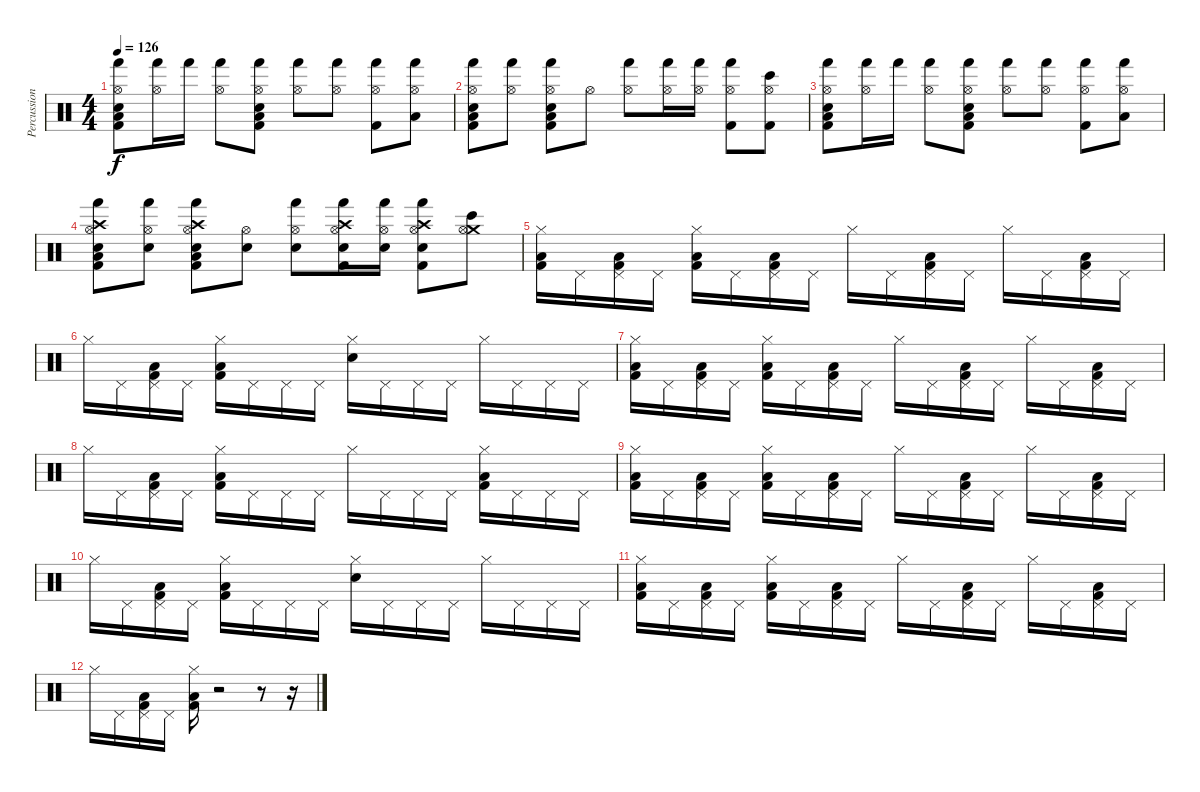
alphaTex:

\track ("Percussion" "Percussion") {instrument percussion}
\staff {score}
\articulation defaults
\ts (4 4)
\tempo 126
\clef neutral
\ks c
("Hand (hit)" "Low Tom (hit)" "Kick (hit) 2" "Snare (hit) 2" "Hi-Hat (open)").8{dy f} ("Hand (hit)" "Hi-Hat (open)").16 "Hand (hit)".16 ("Hand (hit)" "Hi-Hat (open)").8 ("Hand (hit)" "Low Tom (hit)" "Kick (hit) 2" "Snare (hit) 2" "Hi-Hat (open)").8 ("Hand (hit)" "Hi-Hat (open)").8 ("Hand (hit)" "Hi-Hat (open)").8 ("Hand (hit)" "Kick (hit) 2" "Hi-Hat (open)").8 ("Hand (hit)" "Low Tom (hit)" "Hi-Hat (open)").8 |
("Hand (hit)" "Low Tom (hit)" "Kick (hit) 2" "Snare (hit) 2" "Hi-Hat (open)").8 ("Hand (hit)" "Hi-Hat (open)").8 ("Hand (hit)" "Low Tom (hit)" "Kick (hit) 2" "Snare (hit) 2" "Hi-Hat (open)").8 "Hi-Hat (open)".8 ("Hand (hit)" "Hi-Hat (open)").8 ("Hand (hit)" "Hi-Hat (open)").16 ("Hand (hit)" "Hi-Hat (open)").16 ("Hand (hit)" "Kick (hit) 2" "Hi-Hat (open)").8 ("Bongo High (hit)" "Kick (hit) 2" "Hi-Hat (open)").8 |
("Hand (hit)" "Low Tom (hit)" "Kick (hit) 2" "Snare (hit) 2" "Hi-Hat (open)").8 ("Hand (hit)" "Hi-Hat (open)").16 "Hand (hit)".16 ("Hand (hit)" "Hi-Hat (open)").8 ("Hand (hit)" "Low Tom (hit)" "Kick (hit) 2" "Snare (hit) 2" "Hi-Hat (open)").8 ("Hand (hit)" "Hi-Hat (open)").8 ("Hand (hit)" "Hi-Hat (open)").8 ("Hand (hit)" "Kick (hit) 2" "Hi-Hat (open)").8 ("Hand (hit)" "Low Tom (hit)" "Hi-Hat (open)").8 |
("Hand (hit)" "Crash high (hit)" "Low Tom (hit)" "Kick (hit) 2" "Snare (hit) 2" "Hi-Hat (open)").8 ("Hand (hit)" "Snare (hit) 2" "Hi-Hat (open)").8 ("Hand (hit)" "Crash high (hit)" "Low Tom (hit)" "Kick (hit) 2" "Snare (hit) 2" "Hi-Hat (open)").8 ("Snare (hit) 2" "Hi-Hat (open)").8 ("Hand (hit)" "Snare (hit) 2" "Hi-Hat (open)").8 ("Hand (hit)" "Crash high (hit)" "Snare (hit) 2" "Kick (hit) 2" "Hi-Hat (open)").16 ("Hand (hit)" "Snare (hit) 2" "Hi-Hat (open)").16 ("Hand (hit)" "Crash high (hit)" "Snare (hit) 2" "Kick (hit) 2" "Hi-Hat (open)").8 ("Bongo High (hit)" "Crash medium (hit)" "Hi-Hat (open)").8 |
("Kick (hit) 2" "Low Floor Tom (hit)" "Hi-Hat (closed)").16 "Pedal Hi-Hat (hit)".16 ("Kick (hit) 2" "Low Floor Tom (hit)" "Pedal Hi-Hat (hit)").16 "Pedal Hi-Hat (hit)".16 ("Kick (hit) 2" "Low Floor Tom (hit)" "Hi-Hat (closed)").16 "Pedal Hi-Hat (hit)".16 ("Kick (hit) 2" "Low Floor Tom (hit)" "Pedal Hi-Hat (hit)").16 "Pedal Hi-Hat (hit)".16 "Hi-Hat (closed)".16 "Pedal Hi-Hat (hit)".16 ("Kick (hit) 2" "Low Floor Tom (hit)" "Pedal Hi-Hat (hit)").16 "Pedal Hi-Hat (hit)".16 "Hi-Hat (closed)".16 "Pedal Hi-Hat (hit)".16 ("Kick (hit) 2" "Low Floor Tom (hit)" "Pedal Hi-Hat (hit)").16 "Pedal Hi-Hat (hit)".16 |
"Hi-Hat (closed)".16 "Pedal Hi-Hat (hit)".16 ("Kick (hit) 2" "Low Floor Tom (hit)" "Pedal Hi-Hat (hit)").16 "Pedal Hi-Hat (hit)".16 ("Kick (hit) 2" "Low Floor Tom (hit)" "Hi-Hat (closed)").16 "Pedal Hi-Hat (hit)".16 "Pedal Hi-Hat (hit)".16 "Pedal Hi-Hat (hit)".16 ("Hand Clap (hit)" "Hi-Hat (closed)").16 "Pedal Hi-Hat (hit)".16 "Pedal Hi-Hat (hit)".16 "Pedal Hi-Hat (hit)".16 "Hi-Hat (closed)".16 "Pedal Hi-Hat (hit)".16 "Pedal Hi-Hat (hit)".16 "Pedal Hi-Hat (hit)".16 |
("Kick (hit) 2" "Low Floor Tom (hit)" "Hi-Hat (closed)").16 "Pedal Hi-Hat (hit)".16 ("Kick (hit) 2" "Low Floor Tom (hit)" "Pedal Hi-Hat (hit)").16 "Pedal Hi-Hat (hit)".16 ("Kick (hit) 2" "Low Floor Tom (hit)" "Hi-Hat (closed)").16 "Pedal Hi-Hat (hit)".16 ("Kick (hit) 2" "Low Floor Tom (hit)" "Pedal Hi-Hat (hit)").16 "Pedal Hi-Hat (hit)".16 "Hi-Hat (closed)".16 "Pedal Hi-Hat (hit)".16 ("Kick (hit) 2" "Low Floor Tom (hit)" "Pedal Hi-Hat (hit)").16 "Pedal Hi-Hat (hit)".16 "Hi-Hat (closed)".16 "Pedal Hi-Hat (hit)".16 ("Kick (hit) 2" "Low Floor Tom (hit)" "Pedal Hi-Hat (hit)").16 "Pedal Hi-Hat (hit)".16 |
"Hi-Hat (closed)".16 "Pedal Hi-Hat (hit)".16 ("Kick (hit) 2" "Low Floor Tom (hit)" "Pedal Hi-Hat (hit)").16 "Pedal Hi-Hat (hit)".16 ("Kick (hit) 2" "Low Floor Tom (hit)" "Hi-Hat (closed)").16 "Pedal Hi-Hat (hit)".16 "Pedal Hi-Hat (hit)".16 "Pedal Hi-Hat (hit)".16 "Hi-Hat (closed)".16 "Pedal Hi-Hat (hit)".16 "Pedal Hi-Hat (hit)".16 "Pedal Hi-Hat (hit)".16 ("Kick (hit) 2" "Low Floor Tom (hit)" "Hi-Hat (closed)").16 "Pedal Hi-Hat (hit)".16 "Pedal Hi-Hat (hit)".16 "Pedal Hi-Hat (hit)".16 |
("Kick (hit) 2" "Low Floor Tom (hit)" "Hi-Hat (closed)").16 "Pedal Hi-Hat (hit)".16 ("Kick (hit) 2" "Low Floor Tom (hit)" "Pedal Hi-Hat (hit)").16 "Pedal Hi-Hat (hit)".16 ("Kick (hit) 2" "Low Floor Tom (hit)" "Hi-Hat (closed)").16 "Pedal Hi-Hat (hit)".16 ("Kick (hit) 2" "Low Floor Tom (hit)" "Pedal Hi-Hat (hit)").16 "Pedal Hi-Hat (hit)".16 "Hi-Hat (closed)".16 "Pedal Hi-Hat (hit)".16 ("Kick (hit) 2" "Low Floor Tom (hit)" "Pedal Hi-Hat (hit)").16 "Pedal Hi-Hat (hit)".16 "Hi-Hat (closed)".16 "Pedal Hi-Hat (hit)".16 ("Kick (hit) 2" "Low Floor Tom (hit)" "Pedal Hi-Hat (hit)").16 "Pedal Hi-Hat (hit)".16 |
"Hi-Hat (closed)".16 "Pedal Hi-Hat (hit)".16 ("Kick (hit) 2" "Low Floor Tom (hit)" "Pedal Hi-Hat (hit)").16 "Pedal Hi-Hat (hit)".16 ("Kick (hit) 2" "Low Floor Tom (hit)" "Hi-Hat (closed)").16 "Pedal Hi-Hat (hit)".16 "Pedal Hi-Hat (hit)".16 "Pedal Hi-Hat (hit)".16 ("Hand Clap (hit)" "Hi-Hat (closed)").16 "Pedal Hi-Hat (hit)".16 "Pedal Hi-Hat (hit)".16 "Pedal Hi-Hat (hit)".16 "Hi-Hat (closed)".16 "Pedal Hi-Hat (hit)".16 "Pedal Hi-Hat (hit)".16 "Pedal Hi-Hat (hit)".16 |
("Kick (hit) 2" "Low Floor Tom (hit)" "Hi-Hat (closed)").16 "Pedal Hi-Hat (hit)".16 ("Kick (hit) 2" "Low Floor Tom (hit)" "Pedal Hi-Hat (hit)").16 "Pedal Hi-Hat (hit)".16 ("Kick (hit) 2" "Low Floor Tom (hit)" "Hi-Hat (closed)").16 "Pedal Hi-Hat (hit)".16 ("Kick (hit) 2" "Low Floor Tom (hit)" "Pedal Hi-Hat (hit)").16 "Pedal Hi-Hat (hit)".16 "Hi-Hat (closed)".16 "Pedal Hi-Hat (hit)".16 ("Kick (hit) 2" "Low Floor Tom (hit)" "Pedal Hi-Hat (hit)").16 "Pedal Hi-Hat (hit)".16 "Hi-Hat (closed)".16 "Pedal Hi-Hat (hit)".16 ("Kick (hit) 2" "Low Floor Tom (hit)" "Pedal Hi-Hat (hit)").16 "Pedal Hi-Hat (hit)".16 |
"Hi-Hat (closed)".16 "Pedal Hi-Hat (hit)".16 ("Kick (hit) 2" "Low Floor Tom (hit)" "Pedal Hi-Hat (hit)").16 "Pedal Hi-Hat (hit)".16 ("Kick (hit) 2" "Low Floor Tom (hit)" "Hi-Hat (closed)").16 r.2 r.8 r.16
